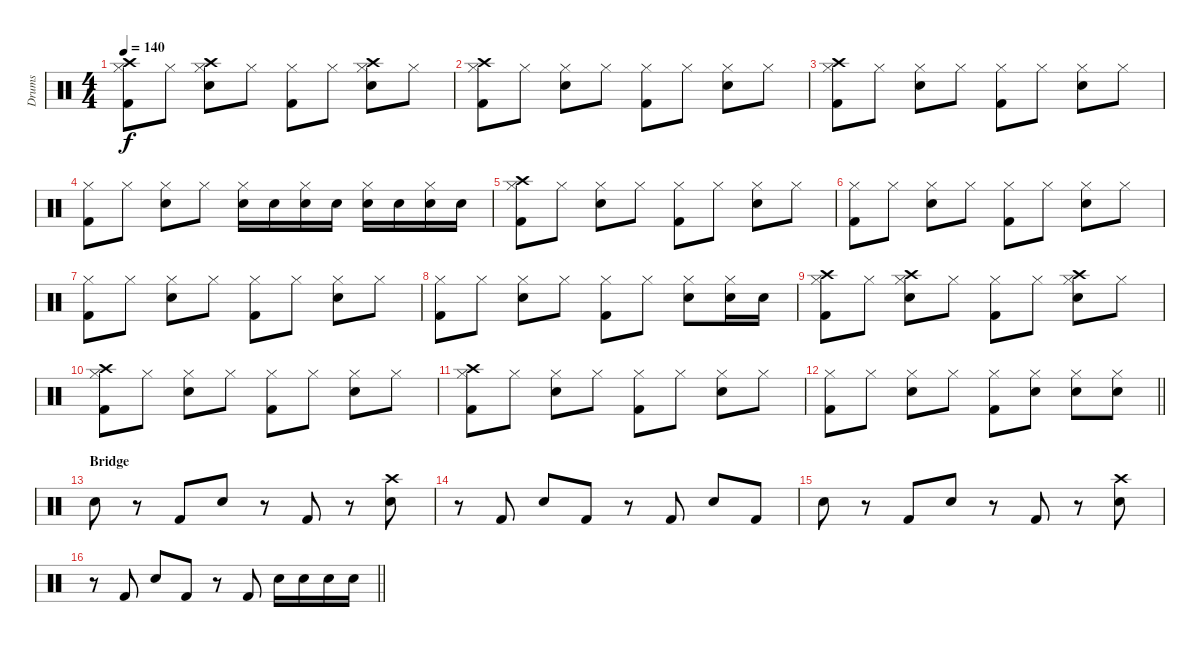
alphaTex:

\track ("Drums" "Drums") {instrument percussion}
\staff {score}
\articulation defaults
\ts (4 4)
\tempo 140
\clef neutral
\ks c
("Hi-Hat (closed)" "Crash high (hit)" "Kick (hit) 2").8{dy f} "Hi-Hat (closed)".8 ("Hi-Hat (closed)" "Crash high (hit)" "Snare (hit) 2").8 "Hi-Hat (closed)".8 ("Hi-Hat (closed)" "Kick (hit) 2").8 "Hi-Hat (closed)".8 ("Hi-Hat (closed)" "Crash high (hit)" "Snare (hit) 2").8 "Hi-Hat (closed)".8 |
("Hi-Hat (closed)" "Crash high (hit)" "Kick (hit) 2").8 "Hi-Hat (closed)".8 ("Hi-Hat (closed)" "Snare (hit) 2").8 "Hi-Hat (closed)".8 ("Hi-Hat (closed)" "Kick (hit) 2").8 "Hi-Hat (closed)".8 ("Hi-Hat (closed)" "Snare (hit) 2").8 "Hi-Hat (closed)".8 |
("Hi-Hat (closed)" "Crash high (hit)" "Kick (hit) 2").8 "Hi-Hat (closed)".8 ("Hi-Hat (closed)" "Snare (hit) 2").8 "Hi-Hat (closed)".8 ("Hi-Hat (closed)" "Kick (hit) 2").8 "Hi-Hat (closed)".8 ("Hi-Hat (closed)" "Snare (hit) 2").8 "Hi-Hat (closed)".8 |
("Hi-Hat (closed)" "Kick (hit) 2").8 "Hi-Hat (closed)".8 ("Hi-Hat (closed)" "Snare (hit) 2").8 "Hi-Hat (closed)".8 ("Hi-Hat (closed)" "Snare (hit) 2").16 "Snare (hit) 2".16 ("Hi-Hat (closed)" "Snare (hit) 2").16 "Snare (hit) 2".16 ("Hi-Hat (closed)" "Snare (hit) 2").16 "Snare (hit) 2".16 ("Hi-Hat (closed)" "Snare (hit) 2").16 "Snare (hit) 2".16 |
("Hi-Hat (closed)" "Crash high (hit)" "Kick (hit) 2").8 "Hi-Hat (closed)".8 ("Hi-Hat (closed)" "Snare (hit) 2").8 "Hi-Hat (closed)".8 ("Hi-Hat (closed)" "Kick (hit) 2").8 "Hi-Hat (closed)".8 ("Hi-Hat (closed)" "Snare (hit) 2").8 "Hi-Hat (closed)".8 |
("Hi-Hat (closed)" "Kick (hit) 2").8 "Hi-Hat (closed)".8 ("Hi-Hat (closed)" "Snare (hit) 2").8 "Hi-Hat (closed)".8 ("Hi-Hat (closed)" "Kick (hit) 2").8 "Hi-Hat (closed)".8 ("Hi-Hat (closed)" "Snare (hit) 2").8 "Hi-Hat (closed)".8 |
("Hi-Hat (closed)" "Kick (hit) 2").8 "Hi-Hat (closed)".8 ("Hi-Hat (closed)" "Snare (hit) 2").8 "Hi-Hat (closed)".8 ("Hi-Hat (closed)" "Kick (hit) 2").8 "Hi-Hat (closed)".8 ("Hi-Hat (closed)" "Snare (hit) 2").8 "Hi-Hat (closed)".8 |
("Hi-Hat (closed)" "Kick (hit) 2").8 "Hi-Hat (closed)".8 ("Hi-Hat (closed)" "Snare (hit) 2").8 "Hi-Hat (closed)".8 ("Hi-Hat (closed)" "Kick (hit) 2").8 "Hi-Hat (closed)".8 ("Hi-Hat (closed)" "Snare (hit) 2").8 ("Hi-Hat (closed)" "Snare (hit) 2").16 "Snare (hit) 2".16 |
("Hi-Hat (closed)" "Crash high (hit)" "Kick (hit) 2").8 "Hi-Hat (closed)".8 ("Hi-Hat (closed)" "Crash high (hit)" "Snare (hit) 2").8 "Hi-Hat (closed)".8 ("Hi-Hat (closed)" "Kick (hit) 2").8 "Hi-Hat (closed)".8 ("Hi-Hat (closed)" "Crash high (hit)" "Snare (hit) 2").8 "Hi-Hat (closed)".8 |
("Hi-Hat (closed)" "Crash high (hit)" "Kick (hit) 2").8 "Hi-Hat (closed)".8 ("Hi-Hat (closed)" "Snare (hit) 2").8 "Hi-Hat (closed)".8 ("Hi-Hat (closed)" "Kick (hit) 2").8 "Hi-Hat (closed)".8 ("Hi-Hat (closed)" "Snare (hit) 2").8 "Hi-Hat (closed)".8 |
("Hi-Hat (closed)" "Crash high (hit)" "Kick (hit) 2").8 "Hi-Hat (closed)".8 ("Hi-Hat (closed)" "Snare (hit) 2").8 "Hi-Hat (closed)".8 ("Hi-Hat (closed)" "Kick (hit) 2").8 "Hi-Hat (closed)".8 ("Hi-Hat (closed)" "Snare (hit) 2").8 "Hi-Hat (closed)".8 |
\barLineRight lightlight
("Hi-Hat (closed)" "Kick (hit) 2").8 "Hi-Hat (closed)".8 ("Hi-Hat (closed)" "Snare (hit) 2").8 "Hi-Hat (closed)".8 ("Hi-Hat (closed)" "Kick (hit) 2").8 ("Hi-Hat (closed)" "Snare (hit) 2").8 ("Hi-Hat (closed)" "Snare (hit) 2").8 ("Hi-Hat (closed)" "Snare (hit) 2").8 |
\section ("" "Bridge")
"Snare (hit) 2".8 r.8 "Kick (hit) 2".8 "Snare (hit) 2".8 r.8 "Kick (hit) 2".8 r.8 ("Crash high (hit)" "Snare (hit) 2").8 |
r.8 "Kick (hit) 2".8 "Snare (hit) 2".8 "Kick (hit) 2".8 r.8 "Kick (hit) 2".8 "Snare (hit) 2".8 "Kick (hit) 2".8 |
"Snare (hit) 2".8 r.8 "Kick (hit) 2".8 "Snare (hit) 2".8 r.8 "Kick (hit) 2".8 r.8 ("Crash high (hit)" "Snare (hit) 2").8 |
\barLineRight lightlight
r.8 "Kick (hit) 2".8 "Snare (hit) 2".8 "Kick (hit) 2".8 r.8 "Kick (hit) 2".8 "Snare (hit) 2".16 "Snare (hit) 2".16 "Snare (hit) 2".16 "Snare (hit) 2".16
